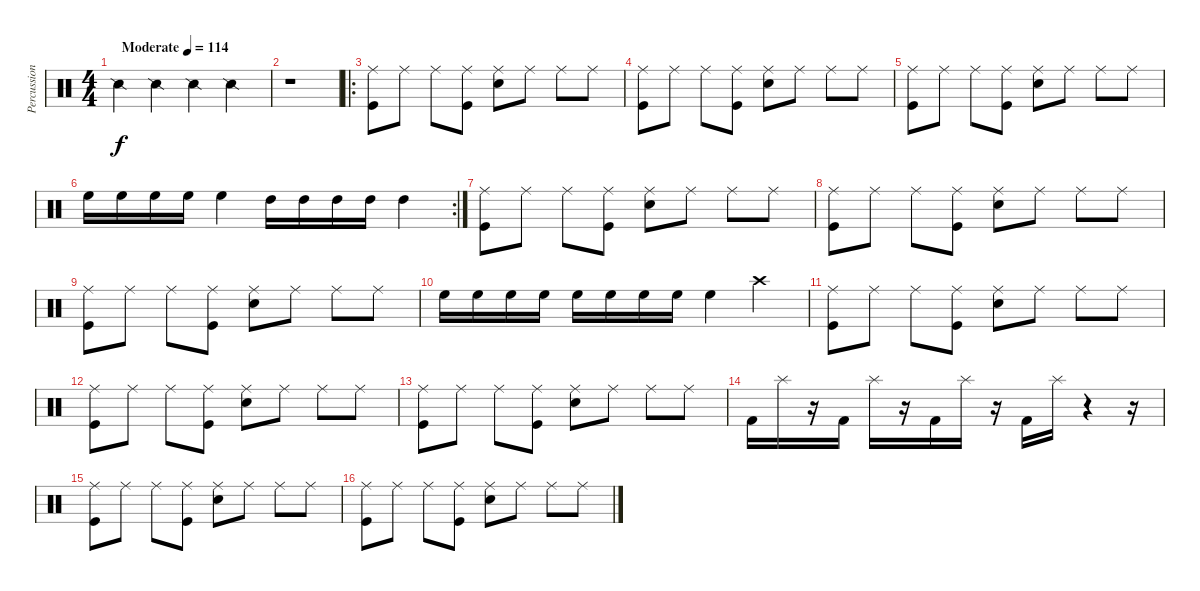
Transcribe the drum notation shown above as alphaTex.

\track ("Percussion" "Percussion") {instrument percussion}
\staff {score}
\articulation defaults
\ts (4 4)
\tempo (114 "Moderate")
\clef neutral
\ks c "Snare (side stick) 2".4{dy f} "Snare (side stick) 2".4 "Snare (side stick) 2".4 "Snare (side stick) 2".4
|
r.1 |
\ro
("Ride (middle)" "Kick (hit)").8 "Ride (middle)".8 "Ride (middle)".8 ("Ride (middle)" "Kick (hit)").8 ("Ride (middle)" "Snare (hit) 2").8 "Ride (middle)".8 "Ride (middle)".8 "Ride (middle)".8 |
("Ride (middle)" "Kick (hit)").8 "Ride (middle)".8 "Ride (middle)".8 ("Ride (middle)" "Kick (hit)").8 ("Ride (middle)" "Snare (hit) 2").8 "Ride (middle)".8 "Ride (middle)".8 "Ride (middle)".8 |
("Ride (middle)" "Kick (hit)").8 "Ride (middle)".8 "Ride (middle)".8 ("Ride (middle)" "Kick (hit)").8 ("Ride (middle)" "Snare (hit) 2").8 "Ride (middle)".8 "Ride (middle)".8 "Ride (middle)".8 |
\rc 2 "High Floor Tom (hit)".16 "High Floor Tom (hit)".16 "High Floor Tom (hit)".16 "High Floor Tom (hit)".16 "High Floor Tom (hit)".4 "High Tom (hit)".16 "High Tom (hit)".16 "High Tom (hit)".16 "High Tom (hit)".16 "High Tom (hit)".4
|
("Ride (middle)" "Kick (hit)").8 "Ride (middle)".8 "Ride (middle)".8 ("Ride (middle)" "Kick (hit)").8 ("Ride (middle)" "Snare (hit) 2").8 "Ride (middle)".8 "Ride (middle)".8 "Ride (middle)".8 |
("Ride (middle)" "Kick (hit)").8 "Ride (middle)".8 "Ride (middle)".8 ("Ride (middle)" "Kick (hit)").8 ("Ride (middle)" "Snare (hit) 2").8 "Ride (middle)".8 "Ride (middle)".8 "Ride (middle)".8 |
("Ride (middle)" "Kick (hit)").8 "Ride (middle)".8 "Ride (middle)".8 ("Ride (middle)" "Kick (hit)").8 ("Ride (middle)" "Snare (hit) 2").8 "Ride (middle)".8 "Ride (middle)".8 "Ride (middle)".8 |
"High Floor Tom (hit)".16 "High Floor Tom (hit)".16 "High Floor Tom (hit)".16 "High Floor Tom (hit)".16 "High Floor Tom (hit)".16 "High Floor Tom (hit)".16 "High Floor Tom (hit)".16 "High Floor Tom (hit)".16 "High Floor Tom (hit)".4 "Crash high (hit)".4 |
("Ride (middle)" "Kick (hit)").8 "Ride (middle)".8 "Ride (middle)".8 ("Ride (middle)" "Kick (hit)").8 ("Ride (middle)" "Snare (hit) 2").8 "Ride (middle)".8 "Ride (middle)".8 "Ride (middle)".8 |
("Ride (middle)" "Kick (hit)").8 "Ride (middle)".8 "Ride (middle)".8 ("Ride (middle)" "Kick (hit)").8 ("Ride (middle)" "Snare (hit) 2").8 "Ride (middle)".8 "Ride (middle)".8 "Ride (middle)".8 |
("Ride (middle)" "Kick (hit)").8 "Ride (middle)".8 "Ride (middle)".8 ("Ride (middle)" "Kick (hit)").8 ("Ride (middle)" "Snare (hit) 2").8 "Ride (middle)".8 "Ride (middle)".8 "Ride (middle)".8 |
"Kick (hit) 2".16 "Splash (hit)".16 r.16 "Kick (hit) 2".16 "Splash (hit)".16 r.16 "Kick (hit) 2".16 "Splash (hit)".16 r.16 "Kick (hit) 2".16 "Splash (hit)".16 r.4 r.16 |
("Ride (middle)" "Kick (hit)").8 "Ride (middle)".8 "Ride (middle)".8 ("Ride (middle)" "Kick (hit)").8 ("Ride (middle)" "Snare (hit) 2").8 "Ride (middle)".8 "Ride (middle)".8 "Ride (middle)".8 |
("Ride (middle)" "Kick (hit)").8 "Ride (middle)".8 "Ride (middle)".8 ("Ride (middle)" "Kick (hit)").8 ("Ride (middle)" "Snare (hit) 2").8 "Ride (middle)".8 "Ride (middle)".8 "Ride (middle)".8
